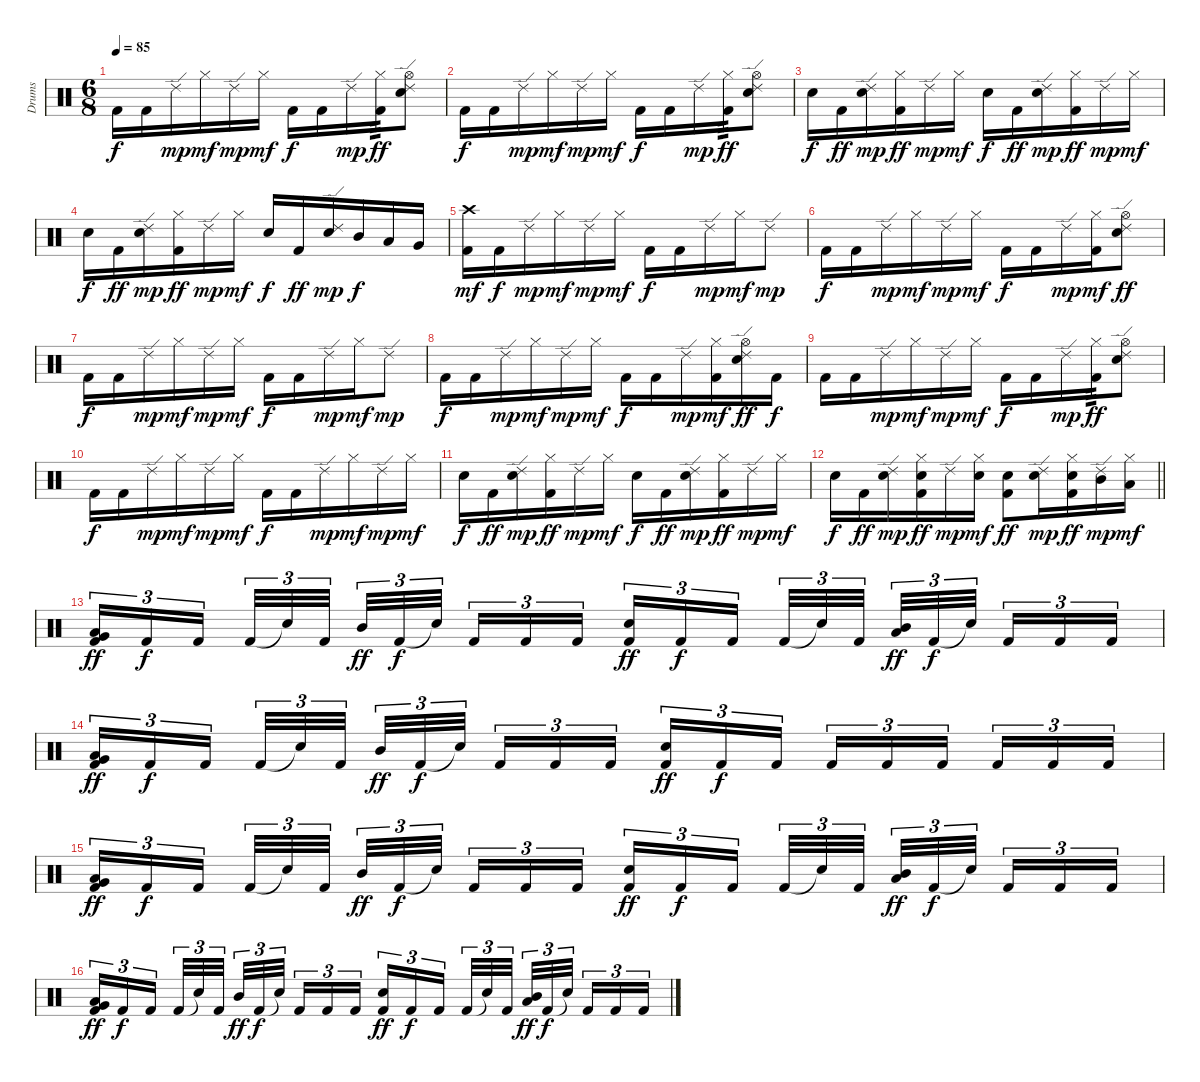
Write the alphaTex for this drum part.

\track ("Drums" "Drums") {instrument percussion}
\staff {score}
\articulation defaults
\ts (6 8)
\tempo 85
\clef neutral
\ks c "Kick (hit) 2".16{dy f} "Kick (hit) 2".16 "Ride (edge) 2".16{dy mp} "Hi-Hat (closed)".16{dy mf} "Ride (edge) 2".16{dy mp} "Hi-Hat (closed)".16{dy mf} "Kick (hit) 2".16{dy f} "Kick (hit) 2".16 "Ride (edge) 2".16{dy mp}
("Hi-Hat (closed)" "Kick (hit) 2").16{tp 3 dy ff} ("Ride (edge) 2" "Hi-Hat (open)" "Snare (hit) 2").8 |
"Kick (hit) 2".16{dy f} "Kick (hit) 2".16 "Ride (edge) 2".16{dy mp} "Hi-Hat (closed)".16{dy mf} "Ride (edge) 2".16{dy mp} "Hi-Hat (closed)".16{dy mf} "Kick (hit) 2".16{dy f} "Kick (hit) 2".16 "Ride (edge) 2".16{dy mp} ("Hi-Hat (closed)" "Kick (hit) 2").16{tp 3 dy ff} ("Ride (edge) 2" "Hi-Hat (open)" "Snare (hit) 2").8 |
"Snare (hit) 2".16{dy f} "Kick (hit) 2".16{dy ff} ("Ride (edge) 2" "Snare (hit) 2").16{dy mp} ("Hi-Hat (closed)" "Kick (hit) 2").16{dy ff} "Ride (edge) 2".16{dy mp} "Hi-Hat (closed)".16{dy mf} "Snare (hit) 2".16{dy f} "Kick (hit) 2".16{dy ff} ("Ride (edge) 2" "Snare (hit) 2").16{dy mp} ("Hi-Hat (closed)" "Kick (hit) 2").16{dy ff} "Ride (edge) 2".16{dy mp} "Hi-Hat (closed)".16{dy mf} |
"Snare (hit) 2".16{dy f} "Kick (hit) 2".16{dy ff} ("Ride (edge) 2" "Snare (hit) 2").16{dy mp} ("Hi-Hat (closed)" "Kick (hit) 2").16{dy ff} "Ride (edge) 2".16{dy mp} "Hi-Hat (closed)".16{dy mf} "Snare (hit) 2".16{dy f} "Kick (hit) 2".16{dy ff} ("Ride (edge) 2" "Snare (hit) 2").16{dy mp} "Mid Tom (hit)".16{dy f} "Low Tom (hit)".16 "Very Low Tom (hit)".16 |
("Crash high (hit)" "Kick (hit) 2").16{dy mf} "Kick (hit) 2".16{dy f} "Ride (edge) 2".16{dy mp} "Hi-Hat (closed)".16{dy mf} "Ride (edge) 2".16{dy mp} "Hi-Hat (closed)".16{dy mf} "Kick (hit) 2".16{dy f} "Kick (hit) 2".16 "Ride (edge) 2".16{dy mp} "Hi-Hat (closed)".16{dy mf} "Ride (edge) 2".8{dy mp} |
"Kick (hit) 2".16{dy f} "Kick (hit) 2".16 "Ride (edge) 2".16{dy mp} "Hi-Hat (closed)".16{dy mf} "Ride (edge) 2".16{dy mp} "Hi-Hat (closed)".16{dy mf} "Kick (hit) 2".16{dy f} "Kick (hit) 2".16 "Ride (edge) 2".16{dy mp} ("Hi-Hat (closed)" "Kick (hit) 2").16{dy mf} ("Ride (edge) 2" "Hi-Hat (open)" "Snare (hit) 2").8{dy ff} |
"Kick (hit) 2".16{dy f} "Kick (hit) 2".16 "Ride (edge) 2".16{dy mp} "Hi-Hat (closed)".16{dy mf} "Ride (edge) 2".16{dy mp} "Hi-Hat (closed)".16{dy mf} "Kick (hit) 2".16{dy f} "Kick (hit) 2".16 "Ride (edge) 2".16{dy mp} "Hi-Hat (closed)".16{dy mf} "Ride (edge) 2".8{dy mp} |
"Kick (hit) 2".16{dy f} "Kick (hit) 2".16 "Ride (edge) 2".16{dy mp} "Hi-Hat (closed)".16{dy mf} "Ride (edge) 2".16{dy mp} "Hi-Hat (closed)".16{dy mf} "Kick (hit) 2".16{dy f} "Kick (hit) 2".16 "Ride (edge) 2".16{dy mp} ("Hi-Hat (closed)" "Kick (hit) 2").16{dy mf} ("Ride (edge) 2" "Hi-Hat (open)" "Snare (hit) 2").16{dy ff} "Kick (hit) 2".16{dy f} |
"Kick (hit) 2".16 "Kick (hit) 2".16 "Ride (edge) 2".16{dy mp} "Hi-Hat (closed)".16{dy mf} "Ride (edge) 2".16{dy mp} "Hi-Hat (closed)".16{dy mf} "Kick (hit) 2".16{dy f} "Kick (hit) 2".16 "Ride (edge) 2".16{dy mp} ("Hi-Hat (closed)" "Kick (hit) 2").16{tp 3 dy ff} ("Ride (edge) 2" "Hi-Hat (open)" "Snare (hit) 2").8 |
"Kick (hit) 2".16{dy f} "Kick (hit) 2".16 "Ride (edge) 2".16{dy mp} "Hi-Hat (closed)".16{dy mf} "Ride (edge) 2".16{dy mp} "Hi-Hat (closed)".16{dy mf} "Kick (hit) 2".16{dy f} "Kick (hit) 2".16 "Ride (edge) 2".16{dy mp} "Hi-Hat (closed)".16{dy mf} "Ride (edge) 2".16{dy mp} "Hi-Hat (closed)".16{dy mf} |
"Snare (hit) 2".16{dy f} "Kick (hit) 2".16{dy ff} ("Ride (edge) 2" "Snare (hit) 2").16{dy mp} ("Hi-Hat (closed)" "Kick (hit) 2").16{dy ff} "Ride (edge) 2".16{dy mp} "Hi-Hat (closed)".16{dy mf} "Snare (hit) 2".16{dy f} "Kick (hit) 2".16{dy ff} ("Ride (edge) 2" "Snare (hit) 2").16{dy mp} ("Hi-Hat (closed)" "Kick (hit) 2").16{dy ff} "Ride (edge) 2".16{dy mp} "Hi-Hat (closed)".16{dy mf} |
\barLineRight lightlight "Snare (hit) 2".16{dy f} "Kick (hit) 2".16{dy ff}
("Ride (edge) 2" "Snare (hit) 2").16{dy mp} ("Hi-Hat (closed)" "Snare (hit) 2" "Kick (hit) 2").16{dy ff} "Ride (edge) 2".16{dy mp} ("Hi-Hat (closed)" "Snare (hit) 2").16{dy mf} ("Snare (hit) 2" "Kick (hit) 2").8{dy ff} ("Ride (edge) 2" "Snare (hit) 2").16{dy mp} ("Hi-Hat (closed)" "Snare (hit) 2" "Kick (hit) 2").16{dy ff} ("Ride (edge) 2" "Mid Tom (hit)").16{dy mp} ("Hi-Hat (closed)" "Low Tom (hit)").16{dy mf} |
\section ("" "")
("Very Low Tom (hit)" "Low Tom (hit)" "Kick (hit) 2").16{tu (3 2) dy ff} "Kick (hit) 2".16{tu (3 2) dy f} "Kick (hit) 2".16{tu (3 2) beam splitsecondary} "Kick (hit) 2".32{tu (3 2)} "Snare (hit)"{t}.32{tu (3 2)} "Kick (hit) 2".32{tu (3 2) beam splitsecondary} "Mid Tom (hit)".32{tu (3 2) dy ff} "Kick (hit) 2".32{tu (3 2) dy f} "Snare (hit)"{t}.32{tu (3 2) beam splitsecondary} "Kick (hit) 2".16{tu (3 2)} "Kick (hit) 2".16{tu (3 2)} "Kick (hit) 2".16{tu (3 2)} ("Snare (hit) 2" "Kick (hit) 2").16{tu (3 2) dy ff} "Kick (hit) 2".16{tu (3 2) dy f} "Kick (hit) 2".16{tu (3 2) beam splitsecondary} "Kick (hit) 2".32{tu (3 2)} "Snare (hit)"{t}.32{tu (3 2)} "Kick (hit) 2".32{tu (3 2) beam splitsecondary} ("Low Tom (hit)" "Mid Tom (hit)").32{tu (3 2) dy ff} "Kick (hit) 2".32{tu (3 2) dy f} "Snare (hit)"{t}.32{tu (3 2) beam splitsecondary} "Kick (hit) 2".16{tu (3 2)} "Kick (hit) 2".16{tu (3 2)} "Kick (hit) 2".16{tu (3 2)} |
("Very Low Tom (hit)" "Low Tom (hit)" "Kick (hit) 2").16{tu (3 2) dy ff} "Kick (hit) 2".16{tu (3 2) dy f} "Kick (hit) 2".16{tu (3 2) beam splitsecondary} "Kick (hit) 2".32{tu (3 2)} "Snare (hit)"{t}.32{tu (3 2)} "Kick (hit) 2".32{tu (3 2) beam splitsecondary} "Mid Tom (hit)".32{tu (3 2) dy ff} "Kick (hit) 2".32{tu (3 2) dy f} "Snare (hit)"{t}.32{tu (3 2) beam splitsecondary} "Kick (hit) 2".16{tu (3 2)} "Kick (hit) 2".16{tu (3 2)} "Kick (hit) 2".16{tu (3 2)} ("Snare (hit) 2" "Kick (hit) 2").16{tu (3 2) dy ff} "Kick (hit) 2".16{tu (3 2) dy f} "Kick (hit) 2".16{tu (3 2) beam splitsecondary} "Kick (hit) 2".16{tu (3 2)} "Kick (hit) 2".16{tu (3 2)} "Kick (hit) 2".16{tu (3 2) beam splitsecondary} "Kick (hit) 2".16{tu (3 2)} "Kick (hit) 2".16{tu (3 2)} "Kick (hit) 2".16{tu (3 2)} |
("Very Low Tom (hit)" "Low Tom (hit)" "Kick (hit) 2").16{tu (3 2) dy ff} "Kick (hit) 2".16{tu (3 2) dy f} "Kick (hit) 2".16{tu (3 2) beam splitsecondary} "Kick (hit) 2".32{tu (3 2)} "Snare (hit)"{t}.32{tu (3 2)} "Kick (hit) 2".32{tu (3 2) beam splitsecondary} "Mid Tom (hit)".32{tu (3 2) dy ff} "Kick (hit) 2".32{tu (3 2) dy f} "Snare (hit)"{t}.32{tu (3 2) beam splitsecondary} "Kick (hit) 2".16{tu (3 2)} "Kick (hit) 2".16{tu (3 2)} "Kick (hit) 2".16{tu (3 2)} ("Snare (hit) 2" "Kick (hit) 2").16{tu (3 2) dy ff} "Kick (hit) 2".16{tu (3 2) dy f} "Kick (hit) 2".16{tu (3 2) beam splitsecondary} "Kick (hit) 2".32{tu (3 2)} "Snare (hit)"{t}.32{tu (3 2)} "Kick (hit) 2".32{tu (3 2) beam splitsecondary} ("Low Tom (hit)" "Mid Tom (hit)").32{tu (3 2) dy ff} "Kick (hit) 2".32{tu (3 2) dy f} "Snare (hit)"{t}.32{tu (3 2) beam splitsecondary} "Kick (hit) 2".16{tu (3 2)} "Kick (hit) 2".16{tu (3 2)} "Kick (hit) 2".16{tu (3 2)} |
("Very Low Tom (hit)" "Low Tom (hit)" "Kick (hit) 2").16{tu (3 2) dy ff} "Kick (hit) 2".16{tu (3 2) dy f} "Kick (hit) 2".16{tu (3 2) beam splitsecondary} "Kick (hit) 2".32{tu (3 2)} "Snare (hit)"{t}.32{tu (3 2)} "Kick (hit) 2".32{tu (3 2) beam splitsecondary} "Mid Tom (hit)".32{tu (3 2) dy ff} "Kick (hit) 2".32{tu (3 2) dy f} "Snare (hit)"{t}.32{tu (3 2) beam splitsecondary} "Kick (hit) 2".16{tu (3 2)} "Kick (hit) 2".16{tu (3 2)} "Kick (hit) 2".16{tu (3 2)} ("Snare (hit) 2" "Kick (hit) 2").16{tu (3 2) dy ff} "Kick (hit) 2".16{tu (3 2) dy f} "Kick (hit) 2".16{tu (3 2) beam splitsecondary} "Kick (hit) 2".32{tu (3 2)} "Snare (hit)"{t}.32{tu (3 2)} "Kick (hit) 2".32{tu (3 2) beam splitsecondary} ("Low Tom (hit)" "Mid Tom (hit)").32{tu (3 2) dy ff} "Kick (hit) 2".32{tu (3 2) dy f} "Snare (hit)"{t}.32{tu (3 2) beam splitsecondary} "Kick (hit) 2".16{tu (3 2)} "Kick (hit) 2".16{tu (3 2)} "Kick (hit) 2".16{tu (3 2)}
